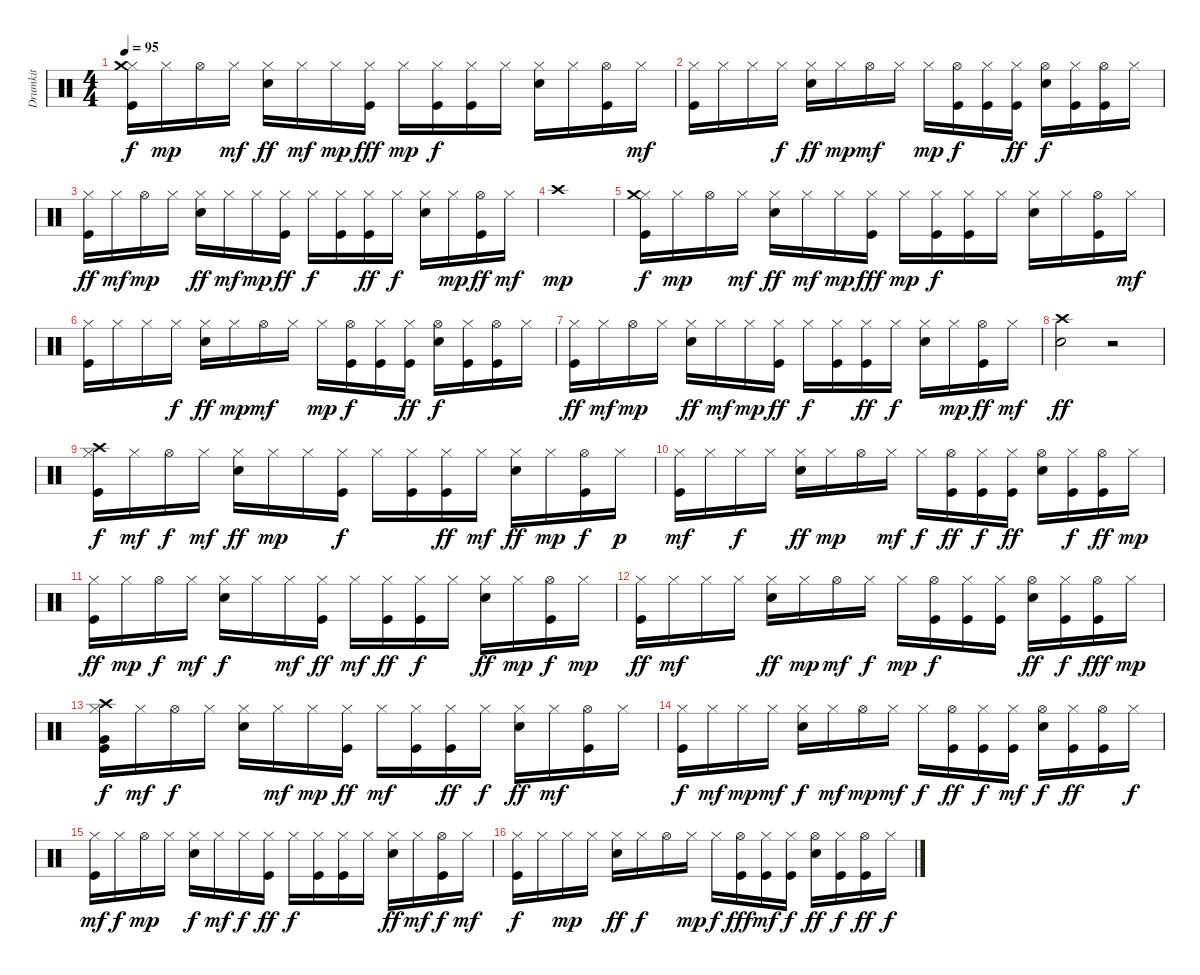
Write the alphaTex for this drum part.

\track ("Drumkit" "Drumkit") {instrument percussion}
\staff {score}
\articulation defaults
\ts (4 4)
\tempo 95
\clef neutral
\ks c
("Kick (hit)" "Hi-Hat (closed)" "Crash medium (hit)").16{dy f} "Hi-Hat (closed)".16{dy mp} "Hi-Hat (open)".16 "Hi-Hat (closed)".16{dy mf} ("Snare (hit) 2" "Hi-Hat (closed)").16{dy ff} "Hi-Hat (closed)".16{dy mf} "Hi-Hat (closed)".16{dy mp} ("Kick (hit)" "Hi-Hat (closed)").16{dy fff} "Hi-Hat (closed)".16{dy mp} ("Kick (hit)" "Hi-Hat (closed)").16{dy f} ("Kick (hit)" "Hi-Hat (closed)").16 "Hi-Hat (closed)".16 ("Snare (hit) 2" "Hi-Hat (closed)").16 "Hi-Hat (closed)".16 ("Kick (hit)" "Hi-Hat (open)").16 "Hi-Hat (closed)".16{dy mf} |
("Kick (hit)" "Hi-Hat (closed)").16 "Hi-Hat (closed)".16 "Hi-Hat (closed)".16 "Hi-Hat (closed)".16{dy f} ("Snare (hit) 2" "Hi-Hat (closed)").16{dy ff} "Hi-Hat (closed)".16{dy mp} "Hi-Hat (open)".16{dy mf} "Hi-Hat (closed)".16 "Hi-Hat (closed)".16{dy mp} ("Kick (hit)" "Hi-Hat (open)").16{dy f} ("Kick (hit)" "Hi-Hat (closed)").16 ("Kick (hit)" "Hi-Hat (closed)").16{dy ff} ("Snare (hit) 2" "Hi-Hat (open)").16{dy f} ("Kick (hit)" "Hi-Hat (closed)").16 ("Kick (hit)" "Hi-Hat (open)").16 "Hi-Hat (closed)".16 |
("Kick (hit)" "Hi-Hat (closed)").16{dy ff} "Hi-Hat (closed)".16{dy mf} "Hi-Hat (open)".16{dy mp} "Hi-Hat (closed)".16 ("Snare (hit) 2" "Hi-Hat (closed)").16{dy ff} "Hi-Hat (closed)".16{dy mf} "Hi-Hat (closed)".16{dy mp} ("Kick (hit)" "Hi-Hat (closed)").16{dy ff} "Hi-Hat (closed)".16{dy f} ("Kick (hit)" "Hi-Hat (closed)").16 ("Kick (hit)" "Hi-Hat (closed)").16{dy ff} "Hi-Hat (closed)".16{dy f} ("Snare (hit) 2" "Hi-Hat (closed)").16 "Hi-Hat (closed)".16{dy mp} ("Kick (hit)" "Hi-Hat (open)").16{dy ff} "Hi-Hat (closed)".16{dy mf} |
"Crash high (hit)".1{dy mp} |
("Kick (hit)" "Hi-Hat (closed)" "Crash medium (hit)").16{dy f} "Hi-Hat (closed)".16{dy mp} "Hi-Hat (open)".16 "Hi-Hat (closed)".16{dy mf} ("Snare (hit) 2" "Hi-Hat (closed)").16{dy ff} "Hi-Hat (closed)".16{dy mf} "Hi-Hat (closed)".16{dy mp} ("Kick (hit)" "Hi-Hat (closed)").16{dy fff} "Hi-Hat (closed)".16{dy mp} ("Kick (hit)" "Hi-Hat (closed)").16{dy f} ("Kick (hit)" "Hi-Hat (closed)").16 "Hi-Hat (closed)".16 ("Snare (hit) 2" "Hi-Hat (closed)").16 "Hi-Hat (closed)".16 ("Kick (hit)" "Hi-Hat (open)").16 "Hi-Hat (closed)".16{dy mf} |
("Kick (hit)" "Hi-Hat (closed)").16 "Hi-Hat (closed)".16 "Hi-Hat (closed)".16 "Hi-Hat (closed)".16{dy f} ("Snare (hit) 2" "Hi-Hat (closed)").16{dy ff} "Hi-Hat (closed)".16{dy mp} "Hi-Hat (open)".16{dy mf} "Hi-Hat (closed)".16 "Hi-Hat (closed)".16{dy mp} ("Kick (hit)" "Hi-Hat (open)").16{dy f} ("Kick (hit)" "Hi-Hat (closed)").16 ("Kick (hit)" "Hi-Hat (closed)").16{dy ff} ("Snare (hit) 2" "Hi-Hat (open)").16{dy f} ("Kick (hit)" "Hi-Hat (closed)").16 ("Kick (hit)" "Hi-Hat (open)").16 "Hi-Hat (closed)".16 |
("Kick (hit)" "Hi-Hat (closed)").16{dy ff} "Hi-Hat (closed)".16{dy mf} "Hi-Hat (open)".16{dy mp} "Hi-Hat (closed)".16 ("Snare (hit) 2" "Hi-Hat (closed)").16{dy ff} "Hi-Hat (closed)".16{dy mf} "Hi-Hat (closed)".16{dy mp} ("Kick (hit)" "Hi-Hat (closed)").16{dy ff} "Hi-Hat (closed)".16{dy f} ("Kick (hit)" "Hi-Hat (closed)").16 ("Kick (hit)" "Hi-Hat (closed)").16{dy ff} "Hi-Hat (closed)".16{dy f} ("Snare (hit) 2" "Hi-Hat (closed)").16 "Hi-Hat (closed)".16{dy mp} ("Kick (hit)" "Hi-Hat (open)").16{dy ff} "Hi-Hat (closed)".16{dy mf} |
("Snare (hit) 2" "Crash high (hit)").2{dy ff} r.2 |
("Kick (hit)" "Hi-Hat (closed)" "Crash high (hit)").16{dy f} "Hi-Hat (closed)".16{dy mf} "Hi-Hat (open)".16{dy f} "Hi-Hat (closed)".16{dy mf} ("Snare (hit) 2" "Hi-Hat (closed)").16{dy ff} "Hi-Hat (closed)".16{dy mp} "Hi-Hat (closed)".16 ("Kick (hit)" "Hi-Hat (closed)").16{dy f} "Hi-Hat (closed)".16 ("Kick (hit)" "Hi-Hat (closed)").16 ("Kick (hit)" "Hi-Hat (closed)").16{dy ff} "Hi-Hat (closed)".16{dy mf} ("Snare (hit) 2" "Hi-Hat (closed)").16{dy ff} "Hi-Hat (closed)".16{dy mp} ("Kick (hit)" "Hi-Hat (open)").16{dy f} "Hi-Hat (closed)".16{dy p} |
("Kick (hit)" "Hi-Hat (closed)").16{dy mf} "Hi-Hat (closed)".16 "Hi-Hat (closed)".16{dy f} "Hi-Hat (closed)".16 ("Snare (hit) 2" "Hi-Hat (closed)").16{dy ff} "Hi-Hat (closed)".16{dy mp} "Hi-Hat (open)".16 "Hi-Hat (closed)".16{dy mf} "Hi-Hat (closed)".16{dy f} ("Kick (hit)" "Hi-Hat (open)").16{dy ff} ("Kick (hit)" "Hi-Hat (closed)").16{dy f} ("Kick (hit)" "Hi-Hat (closed)").16{dy ff} ("Snare (hit) 2" "Hi-Hat (open)").16 ("Kick (hit)" "Hi-Hat (closed)").16{dy f} ("Kick (hit)" "Hi-Hat (open)").16{dy ff} "Hi-Hat (closed)".16{dy mp} |
("Kick (hit)" "Hi-Hat (closed)").16{dy ff} "Hi-Hat (closed)".16{dy mp} "Hi-Hat (open)".16{dy f} "Hi-Hat (closed)".16{dy mf} ("Snare (hit) 2" "Hi-Hat (closed)").16{dy f} "Hi-Hat (closed)".16 "Hi-Hat (closed)".16{dy mf} ("Kick (hit)" "Hi-Hat (closed)").16{dy ff} "Hi-Hat (closed)".16{dy mf} ("Kick (hit)" "Hi-Hat (closed)").16{dy ff} ("Kick (hit)" "Hi-Hat (closed)").16{dy f} "Hi-Hat (closed)".16 ("Snare (hit) 2" "Hi-Hat (closed)").16{dy ff} "Hi-Hat (closed)".16{dy mp} ("Kick (hit)" "Hi-Hat (open)").16{dy f} "Hi-Hat (closed)".16{dy mp} |
("Kick (hit)" "Hi-Hat (closed)").16{dy ff} "Hi-Hat (closed)".16{dy mf} "Hi-Hat (closed)".16 "Hi-Hat (closed)".16 ("Snare (hit) 2" "Hi-Hat (closed)").16{dy ff} "Hi-Hat (closed)".16{dy mp} "Hi-Hat (open)".16{dy mf} "Hi-Hat (closed)".16{dy f} "Hi-Hat (closed)".16{dy mp} ("Kick (hit)" "Hi-Hat (open)").16{dy f} ("Kick (hit)" "Hi-Hat (closed)").16 ("Kick (hit)" "Hi-Hat (closed)").16 ("Snare (hit) 2" "Hi-Hat (open)").16{dy ff} ("Kick (hit)" "Hi-Hat (closed)").16{dy f} ("Kick (hit)" "Hi-Hat (open)").16{dy fff} "Hi-Hat (closed)".16{dy mp} |
("Kick (hit)" "Hi-Hat (closed)" "Very Low Tom (hit)" "Crash high (hit)").16{dy f} "Hi-Hat (closed)".16{dy mf} "Hi-Hat (open)".16{dy f} "Hi-Hat (closed)".16 ("Snare (hit) 2" "Hi-Hat (closed)").16 "Hi-Hat (closed)".16{dy mf} "Hi-Hat (closed)".16{dy mp} ("Kick (hit)" "Hi-Hat (closed)").16{dy ff} "Hi-Hat (closed)".16{dy mf} ("Kick (hit)" "Hi-Hat (closed)").16 ("Kick (hit)" "Hi-Hat (closed)").16{dy ff} "Hi-Hat (closed)".16{dy f} ("Snare (hit) 2" "Hi-Hat (closed)").16{dy ff} "Hi-Hat (closed)".16{dy mf} ("Kick (hit)" "Hi-Hat (open)").16 "Hi-Hat (closed)".16 |
("Kick (hit)" "Hi-Hat (closed)").16{dy f} "Hi-Hat (closed)".16{dy mf} "Hi-Hat (closed)".16{dy mp} "Hi-Hat (closed)".16{dy mf} ("Snare (hit) 2" "Hi-Hat (closed)").16{dy f} "Hi-Hat (closed)".16{dy mf} "Hi-Hat (open)".16{dy mp} "Hi-Hat (closed)".16{dy mf} "Hi-Hat (closed)".16{dy f} ("Kick (hit)" "Hi-Hat (open)").16{dy ff} ("Kick (hit)" "Hi-Hat (closed)").16{dy f} ("Kick (hit)" "Hi-Hat (closed)").16{dy mf} ("Snare (hit) 2" "Hi-Hat (open)").16{dy f} ("Kick (hit)" "Hi-Hat (closed)").16{dy ff} ("Kick (hit)" "Hi-Hat (open)").16 "Hi-Hat (closed)".16{dy f} |
("Kick (hit)" "Hi-Hat (closed)").16{dy mf} "Hi-Hat (closed)".16{dy f} "Hi-Hat (open)".16{dy mp} "Hi-Hat (closed)".16 ("Snare (hit) 2" "Hi-Hat (closed)").16{dy f} "Hi-Hat (closed)".16{dy mf} "Hi-Hat (closed)".16{dy f} ("Kick (hit)" "Hi-Hat (closed)").16{dy ff} "Hi-Hat (closed)".16{dy f} ("Kick (hit)" "Hi-Hat (closed)").16 ("Kick (hit)" "Hi-Hat (closed)").16 "Hi-Hat (closed)".16 ("Snare (hit) 2" "Hi-Hat (closed)").16{dy ff} "Hi-Hat (closed)".16{dy mf} ("Kick (hit)" "Hi-Hat (open)").16{dy f} "Hi-Hat (closed)".16{dy mf} |
("Kick (hit)" "Hi-Hat (closed)").16{dy f} "Hi-Hat (closed)".16 "Hi-Hat (closed)".16{dy mp} "Hi-Hat (closed)".16 ("Snare (hit) 2" "Hi-Hat (closed)").16{dy ff} "Hi-Hat (closed)".16{dy f} "Hi-Hat (open)".16 "Hi-Hat (closed)".16{dy mp} "Hi-Hat (closed)".16{dy f} ("Kick (hit)" "Hi-Hat (open)").16{dy fff} ("Kick (hit)" "Hi-Hat (closed)").16{dy mf} ("Kick (hit)" "Hi-Hat (closed)").16{dy f} ("Snare (hit) 2" "Hi-Hat (open)").16{dy ff} ("Kick (hit)" "Hi-Hat (closed)").16{dy f} ("Kick (hit)" "Hi-Hat (open)").16{dy ff} "Hi-Hat (closed)".16{dy f}
